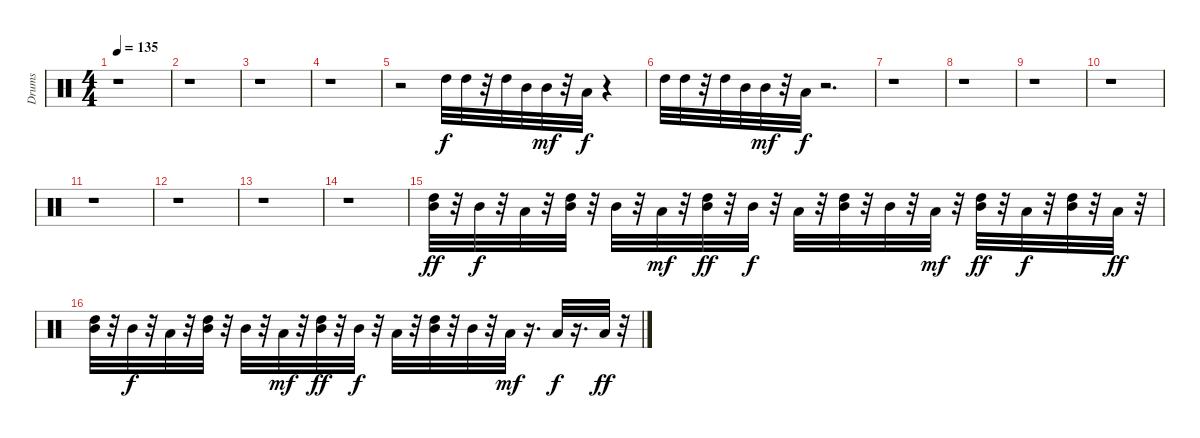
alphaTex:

\track ("Drums" "Drums") {instrument percussion}
\staff {score}
\articulation defaults
\ts (4 4)
\tempo 135
\clef neutral
\ks c
r.1{dy f} |
r.1 |
r.1 |
r.1 |
r.2 "High Tom (hit)".32 "High Tom (hit)".32 r.32 "High Tom (hit)".32 "Mid Tom (hit)".32 "Mid Tom (hit)".32{dy mf} r.32 "Low Tom (hit)".32{dy f} r.4 |
"High Tom (hit)".32 "High Tom (hit)".32 r.32 "High Tom (hit)".32 "Mid Tom (hit)".32 "Mid Tom (hit)".32{dy mf} r.32 "Low Tom (hit)".32{dy f} r.2{d} |
r.1 |
r.1 |
r.1 |
r.1 |
r.1 |
r.1 |
r.1 |
r.1 |
("High Tom (hit)" "Mid Tom (hit)").32{dy ff} r.32 "Mid Tom (hit)".32{dy f} r.32 "Low Tom (hit)".32 r.32 ("High Tom (hit)" "Mid Tom (hit)").32 r.32 "Mid Tom (hit)".32 r.32 "Low Tom (hit)".32{dy mf} r.32 ("High Tom (hit)" "Mid Tom (hit)").32{dy ff} r.32 "Mid Tom (hit)".32{dy f} r.32 "Low Tom (hit)".32 r.32 ("High Tom (hit)" "Mid Tom (hit)").32 r.32 "Mid Tom (hit)".32 r.32 "Low Tom (hit)".32{dy mf} r.32 ("High Tom (hit)" "Mid Tom (hit)").32{dy ff} r.32 "Low Tom (hit)".32{dy f} r.32 ("High Tom (hit)" "Mid Tom (hit)").32 r.32 "Low Tom (hit)".32{dy ff} r.32 |
("High Tom (hit)" "Mid Tom (hit)").32 r.32 "Mid Tom (hit)".32{dy f} r.32 "Low Tom (hit)".32 r.32 ("High Tom (hit)" "Mid Tom (hit)").32 r.32 "Mid Tom (hit)".32 r.32 "Low Tom (hit)".32{dy mf} r.32 ("High Tom (hit)" "Mid Tom (hit)").32{dy ff} r.32 "Mid Tom (hit)".32{dy f} r.32 "Low Tom (hit)".32 r.32 ("High Tom (hit)" "Mid Tom (hit)").32 r.32 "Mid Tom (hit)".32 r.32 "Low Tom (hit)".32{dy mf} r.16{d} "Low Tom (hit)".32{dy f} r.16{d} "Low Tom (hit)".32{dy ff} r.32
